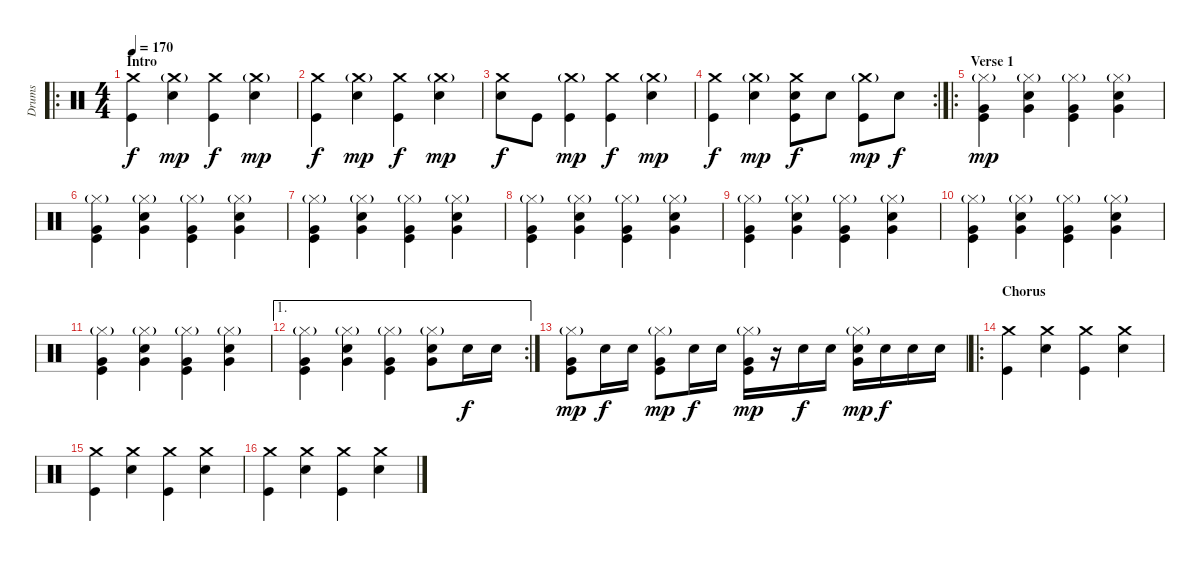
\track ("Drums" "Drums") {instrument percussion}
\staff {score}
\articulation defaults
\ro
\ts (4 4)
\section ("" "Intro")
\tempo 170
\clef neutral
\ks c
("Crash medium (hit)" "Kick (hit)").4{dy f} ("Crash medium (hit)"{g} "Snare (hit) 2").4{dy mp} ("Crash medium (hit)" "Kick (hit)").4{dy f} ("Crash medium (hit)"{g} "Snare (hit) 2").4{dy mp} |
("Crash medium (hit)" "Kick (hit)").4{dy f} ("Crash medium (hit)"{g} "Snare (hit) 2").4{dy mp} ("Crash medium (hit)" "Kick (hit)").4{dy f} ("Crash medium (hit)"{g} "Snare (hit) 2").4{dy mp} |
("Crash medium (hit)" "Snare (hit) 2").8{dy f} "Kick (hit)".8 ("Crash medium (hit)"{g} "Kick (hit)").4{dy mp} ("Crash medium (hit)" "Kick (hit)").4{dy f} ("Crash medium (hit)"{g} "Snare (hit) 2").4{dy mp} |
\rc 2
("Crash medium (hit)" "Kick (hit)").4{dy f} ("Crash medium (hit)"{g} "Snare (hit) 2").4{dy mp} ("Crash medium (hit)" "Snare (hit) 2" "Kick (hit)").8{dy f} "Snare (hit) 2".8 ("Crash medium (hit)"{g} "Kick (hit)").8{dy mp} "Snare (hit) 2".8{dy f} |
\ro
\section ("" "Verse 1")
("Very Low Tom (hit)" "Hi-Hat (closed)"{g} "Kick (hit)").4{dy mp} ("Very Low Tom (hit)" "Hi-Hat (closed)"{g} "Snare (hit) 2").4 ("Very Low Tom (hit)" "Hi-Hat (closed)"{g} "Kick (hit)").4 ("Very Low Tom (hit)" "Hi-Hat (closed)"{g} "Snare (hit) 2").4 |
("Very Low Tom (hit)" "Hi-Hat (closed)"{g} "Kick (hit)").4 ("Very Low Tom (hit)" "Hi-Hat (closed)"{g} "Snare (hit) 2").4 ("Very Low Tom (hit)" "Hi-Hat (closed)"{g} "Kick (hit)").4 ("Very Low Tom (hit)" "Hi-Hat (closed)"{g} "Snare (hit) 2").4 |
("Very Low Tom (hit)" "Hi-Hat (closed)"{g} "Kick (hit)").4 ("Very Low Tom (hit)" "Hi-Hat (closed)"{g} "Snare (hit) 2").4 ("Very Low Tom (hit)" "Hi-Hat (closed)"{g} "Kick (hit)").4 ("Very Low Tom (hit)" "Hi-Hat (closed)"{g} "Snare (hit) 2").4 |
("Very Low Tom (hit)" "Hi-Hat (closed)"{g} "Kick (hit)").4 ("Very Low Tom (hit)" "Hi-Hat (closed)"{g} "Snare (hit) 2").4 ("Very Low Tom (hit)" "Hi-Hat (closed)"{g} "Kick (hit)").4 ("Very Low Tom (hit)" "Hi-Hat (closed)"{g} "Snare (hit) 2").4 |
("Very Low Tom (hit)" "Hi-Hat (closed)"{g} "Kick (hit)").4 ("Very Low Tom (hit)" "Hi-Hat (closed)"{g} "Snare (hit) 2").4 ("Very Low Tom (hit)" "Hi-Hat (closed)"{g} "Kick (hit)").4 ("Very Low Tom (hit)" "Hi-Hat (closed)"{g} "Snare (hit) 2").4 |
("Very Low Tom (hit)" "Hi-Hat (closed)"{g} "Kick (hit)").4 ("Very Low Tom (hit)" "Hi-Hat (closed)"{g} "Snare (hit) 2").4 ("Very Low Tom (hit)" "Hi-Hat (closed)"{g} "Kick (hit)").4 ("Very Low Tom (hit)" "Hi-Hat (closed)"{g} "Snare (hit) 2").4 |
("Very Low Tom (hit)" "Hi-Hat (closed)"{g} "Kick (hit)").4 ("Very Low Tom (hit)" "Hi-Hat (closed)"{g} "Snare (hit) 2").4 ("Very Low Tom (hit)" "Hi-Hat (closed)"{g} "Kick (hit)").4 ("Very Low Tom (hit)" "Hi-Hat (closed)"{g} "Snare (hit) 2").4 |
\ae 1
\rc 2
("Very Low Tom (hit)" "Hi-Hat (closed)"{g} "Kick (hit)").4 ("Very Low Tom (hit)" "Hi-Hat (closed)"{g} "Snare (hit) 2").4 ("Very Low Tom (hit)" "Hi-Hat (closed)"{g} "Kick (hit)").4 ("Very Low Tom (hit)" "Hi-Hat (closed)"{g} "Snare (hit) 2").8 "Snare (hit) 2".16{dy f} "Snare (hit) 2".16 |
("Very Low Tom (hit)" "Hi-Hat (closed)"{g} "Kick (hit)").8{dy mp} "Snare (hit) 2".16{dy f} "Snare (hit) 2".16 ("Very Low Tom (hit)" "Hi-Hat (closed)"{g} "Kick (hit)").8{dy mp} "Snare (hit) 2".16{dy f} "Snare (hit) 2".16 ("Very Low Tom (hit)" "Hi-Hat (closed)"{g} "Kick (hit)").16{dy mp} r.16 "Snare (hit) 2".16{dy f} "Snare (hit) 2".16 ("Very Low Tom (hit)" "Hi-Hat (closed)"{g} "Snare (hit) 2").16{dy mp} "Snare (hit) 2".16{dy f} "Snare (hit) 2".16 "Snare (hit) 2".16 |
\ro
\section ("" "Chorus")
("Crash medium (hit)" "Kick (hit)").4 ("Crash medium (hit)" "Snare (hit) 2").4 ("Crash medium (hit)" "Kick (hit)").4 ("Crash medium (hit)" "Snare (hit) 2").4 |
("Crash medium (hit)" "Kick (hit)").4 ("Crash medium (hit)" "Snare (hit) 2").4 ("Crash medium (hit)" "Kick (hit)").4 ("Crash medium (hit)" "Snare (hit) 2").4 |
("Crash medium (hit)" "Kick (hit)").4 ("Crash medium (hit)" "Snare (hit) 2").4 ("Crash medium (hit)" "Kick (hit)").4 ("Crash medium (hit)" "Snare (hit) 2").4
